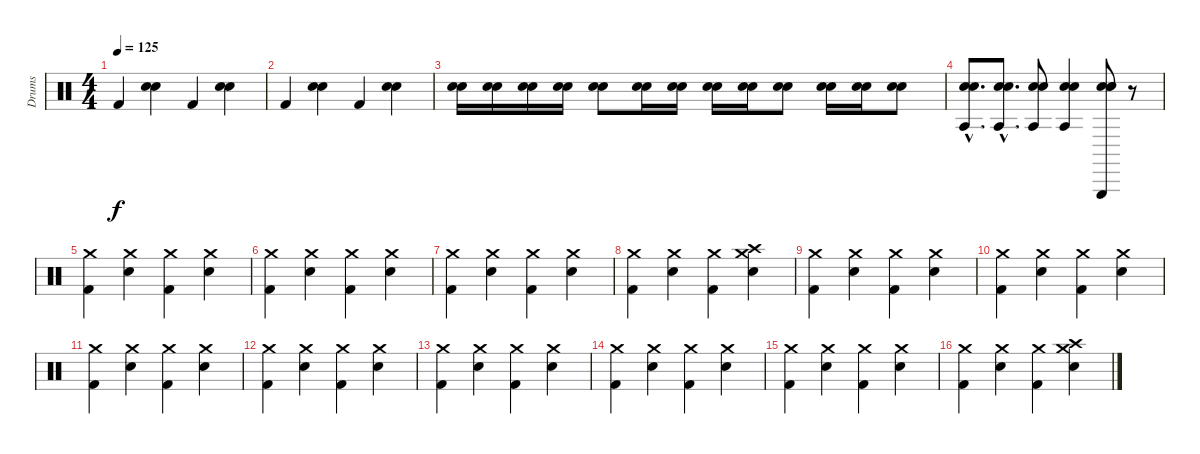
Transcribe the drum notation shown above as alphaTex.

\track ("Drums" "Drums") {instrument percussion}
\staff {score}
\articulation defaults
\ts (4 4)
\tempo 125
\clef neutral
\ks c "Kick (hit) 2".4{dy f}
("Electric Snare (hit)" "Hand Clap (hit)").4 "Kick (hit) 2".4 ("Electric Snare (hit)" "Hand Clap (hit)").4 |
"Kick (hit) 2".4 ("Electric Snare (hit)" "Hand Clap (hit)").4 "Kick (hit) 2".4 ("Electric Snare (hit)" "Hand Clap (hit)").4 |
("Electric Snare (hit)" "Electric Snare (hit)").16 ("Electric Snare (hit)" "Electric Snare (hit)").16 ("Electric Snare (hit)" "Electric Snare (hit)").16 ("Electric Snare (hit)" "Electric Snare (hit)").16 ("Electric Snare (hit)" "Electric Snare (hit)").8 ("Electric Snare (hit)" "Electric Snare (hit)").16 ("Electric Snare (hit)" "Electric Snare (hit)").16 ("Electric Snare (hit)" "Electric Snare (hit)").16 ("Electric Snare (hit)" "Electric Snare (hit)").16 ("Electric Snare (hit)" "Electric Snare (hit)").8 ("Electric Snare (hit)" "Electric Snare (hit)").16 ("Electric Snare (hit)" "Electric Snare (hit)").16 ("Electric Snare (hit)" "Electric Snare (hit)").8 |
("Agogo tow (hit)"{hac} "Electric Snare (hit)"{hac} "Electric Snare (hit)"{hac}).8{d} ("Agogo tow (hit)"{hac} "Electric Snare (hit)"{hac} "Electric Snare (hit)"{hac}).8{d} ("Agogo tow (hit)" "Electric Snare (hit)" "Electric Snare (hit)").8 ("Agogo tow (hit)" "Electric Snare (hit)" "Electric Snare (hit)").4 ("Triangle (hit)" "Electric Snare (hit)" "Electric Snare (hit)" "Electric Snare (hit)").8 r.8 |
("Kick (hit) 2" "Crash medium (hit)").4 ("Electric Snare (hit)" "Crash medium (hit)").4 ("Kick (hit) 2" "Crash medium (hit)").4 ("Electric Snare (hit)" "Crash medium (hit)").4 |
("Kick (hit) 2" "Crash medium (hit)").4 ("Electric Snare (hit)" "Crash medium (hit)").4 ("Kick (hit) 2" "Crash medium (hit)").4 ("Electric Snare (hit)" "Crash medium (hit)").4 |
("Kick (hit) 2" "Crash medium (hit)").4 ("Electric Snare (hit)" "Crash medium (hit)").4 ("Kick (hit) 2" "Crash medium (hit)").4 ("Electric Snare (hit)" "Crash medium (hit)").4 |
("Kick (hit) 2" "Crash medium (hit)").4 ("Electric Snare (hit)" "Crash medium (hit)").4 ("Kick (hit) 2" "Crash medium (hit)").4 ("Electric Snare (hit)" "Crash medium (hit)" "Crash high (hit)").4 |
("Kick (hit) 2" "Crash medium (hit)").4 ("Electric Snare (hit)" "Crash medium (hit)").4 ("Kick (hit) 2" "Crash medium (hit)").4 ("Electric Snare (hit)" "Crash medium (hit)").4 |
("Kick (hit) 2" "Crash medium (hit)").4 ("Electric Snare (hit)" "Crash medium (hit)").4 ("Kick (hit) 2" "Crash medium (hit)").4 ("Electric Snare (hit)" "Crash medium (hit)").4 |
("Kick (hit) 2" "Crash medium (hit)").4 ("Electric Snare (hit)" "Crash medium (hit)").4 ("Kick (hit) 2" "Crash medium (hit)").4 ("Electric Snare (hit)" "Crash medium (hit)").4 |
("Kick (hit) 2" "Crash medium (hit)").4 ("Electric Snare (hit)" "Crash medium (hit)").4 ("Kick (hit) 2" "Crash medium (hit)").4 ("Electric Snare (hit)" "Crash medium (hit)").4 |
("Kick (hit) 2" "Crash medium (hit)").4 ("Electric Snare (hit)" "Crash medium (hit)").4 ("Kick (hit) 2" "Crash medium (hit)").4 ("Electric Snare (hit)" "Crash medium (hit)").4 |
("Kick (hit) 2" "Crash medium (hit)").4 ("Electric Snare (hit)" "Crash medium (hit)").4 ("Kick (hit) 2" "Crash medium (hit)").4 ("Electric Snare (hit)" "Crash medium (hit)").4 |
("Kick (hit) 2" "Crash medium (hit)").4 ("Electric Snare (hit)" "Crash medium (hit)").4 ("Kick (hit) 2" "Crash medium (hit)").4 ("Electric Snare (hit)" "Crash medium (hit)").4 |
("Kick (hit) 2" "Crash medium (hit)").4 ("Electric Snare (hit)" "Crash medium (hit)").4 ("Kick (hit) 2" "Crash medium (hit)").4 ("Electric Snare (hit)" "Crash medium (hit)" "Crash high (hit)").4
